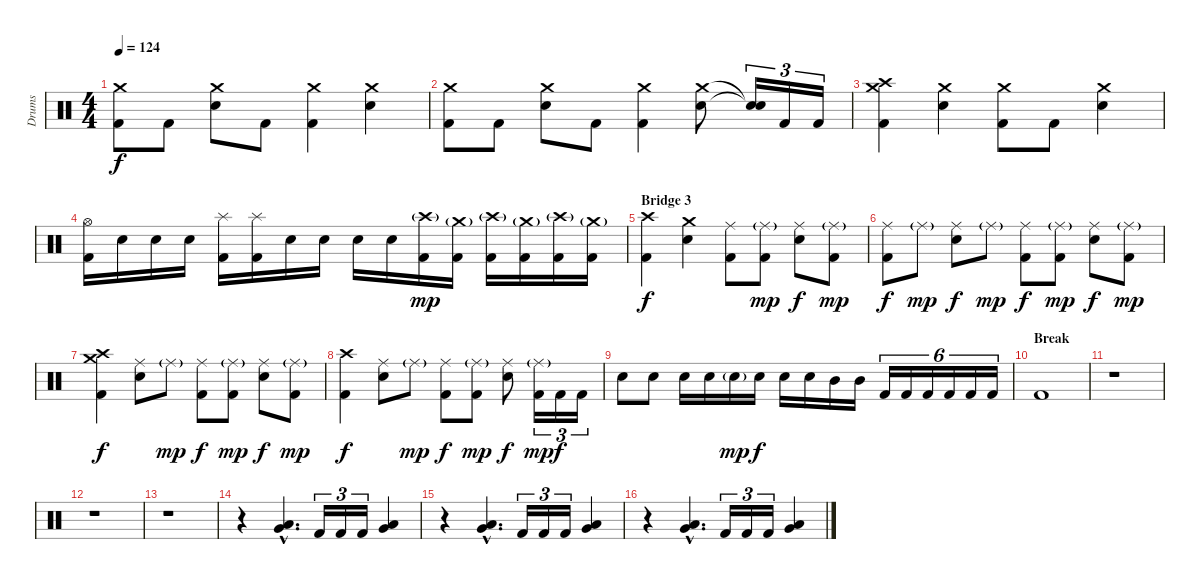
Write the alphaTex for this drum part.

\track ("Drums" "Drums") {instrument percussion}
\staff {score}
\articulation defaults
\ts (4 4)
\tempo 124
\clef neutral
\ks c
("Crash medium (hit)" "Kick (hit) 2").8{dy f} "Kick (hit) 2".8 ("Crash medium (hit)" "Snare (hit) 2").8 "Kick (hit) 2".8 ("Crash medium (hit)" "Kick (hit) 2").4 ("Crash medium (hit)" "Snare (hit) 2").4 |
("Crash medium (hit)" "Kick (hit) 2").8 "Kick (hit) 2".8 ("Crash medium (hit)" "Snare (hit) 2").8 "Kick (hit) 2".8 ("Crash medium (hit)" "Kick (hit) 2").4 ("Crash medium (hit)" "Snare (hit) 2").8 ("Snare (hit)"{t} "Snare (hit)"{t}).16{tu (3 2)} "Kick (hit) 2".16{tu (3 2)} "Kick (hit) 2".16{tu (3 2)} |
("Crash medium (hit)" "Crash high (hit)" "Kick (hit) 2").4 ("Crash medium (hit)" "Snare (hit) 2").4 ("Crash medium (hit)" "Kick (hit) 2").8 "Kick (hit) 2".8 ("Crash medium (hit)" "Snare (hit) 2").4 |
("Hi-Hat (open)" "Kick (hit) 2").16 "Snare (hit) 2".16 "Snare (hit) 2".16 "Snare (hit) 2".16 ("Splash (hit)" "Kick (hit) 2").16 ("Splash (hit)" "Kick (hit) 2").16 "Snare (hit) 2".16 "Snare (hit) 2".16 "Snare (hit) 2".16 "Snare (hit) 2".16 ("Crash high (hit)"{g} "Kick (hit) 2").16{dy mp} ("Crash medium (hit)"{g} "Kick (hit) 2").16 ("Crash high (hit)"{g} "Kick (hit) 2").16 ("Crash medium (hit)"{g} "Kick (hit) 2").16 ("Crash high (hit)"{g} "Kick (hit) 2").16 ("Crash medium (hit)"{g} "Kick (hit) 2").16 |
\section ("" "Bridge 3")
("Crash high (hit)" "Kick (hit) 2").4{dy f} ("Crash medium (hit)" "Snare (hit) 2").4 ("Ride (middle)" "Kick (hit) 2").8 ("Ride (middle)"{g} "Kick (hit) 2").8{dy mp} ("Ride (middle)" "Snare (hit) 2").8{dy f} ("Ride (middle)"{g} "Kick (hit) 2").8{dy mp} |
("Ride (middle)" "Kick (hit) 2").8{dy f} "Ride (middle)"{g}.8{dy mp} ("Ride (middle)" "Snare (hit) 2").8{dy f} "Ride (middle)"{g}.8{dy mp} ("Ride (middle)" "Kick (hit) 2").8{dy f} ("Ride (middle)"{g} "Kick (hit) 2").8{dy mp} ("Ride (middle)" "Snare (hit) 2").8{dy f} ("Ride (middle)"{g} "Kick (hit) 2").8{dy mp} |
("Crash medium (hit)" "Crash high (hit)" "Kick (hit) 2").4{dy f} ("Ride (middle)" "Snare (hit) 2").8 "Ride (middle)"{g}.8{dy mp} ("Ride (middle)" "Kick (hit) 2").8{dy f} ("Ride (middle)"{g} "Kick (hit) 2").8{dy mp} ("Ride (middle)" "Snare (hit) 2").8{dy f} ("Ride (middle)"{g} "Kick (hit) 2").8{dy mp} |
("Crash high (hit)" "Kick (hit) 2").4{dy f} ("Ride (middle)" "Snare (hit) 2").8 "Ride (middle)"{g}.8{dy mp} ("Ride (middle)" "Kick (hit) 2").8{dy f} ("Ride (middle)"{g} "Kick (hit) 2").8{dy mp} ("Ride (middle)" "Snare (hit) 2").8{dy f} ("Ride (middle)"{g} "Kick (hit) 2").16{tu (3 2) dy mp} "Kick (hit) 2".16{tu (3 2) dy f} "Kick (hit) 2".16{tu (3 2)} |
"Snare (hit) 2".8 "Snare (hit) 2".8 "Snare (hit) 2".16 "Snare (hit) 2".16 "Snare (hit) 2"{g}.16{dy mp} "Snare (hit) 2".16{dy f} "Snare (hit) 2".16 "Snare (hit) 2".16 "Mid Tom (hit)".16 "Mid Tom (hit)".16 "Kick (hit) 2".16{tu (6 4)} "Kick (hit) 2".16{tu (6 4)} "Kick (hit) 2".16{tu (6 4)} "Kick (hit) 2".16{tu (6 4)} "Kick (hit) 2".16{tu (6 4)} "Kick (hit) 2".16{tu (6 4)} |
\section ("" "Break")
"Kick (hit) 2".1 |
r.1 |
r.1 |
r.1 |
r.4 ("Very Low Tom (hit)"{hac} "Low Floor Tom (hit)"{hac}).4{d} "Kick (hit) 2".16{tu (3 2)} "Kick (hit) 2".16{tu (3 2)} "Kick (hit) 2".16{tu (3 2)} ("Very Low Tom (hit)" "Low Floor Tom (hit)").4 |
r.4 ("Very Low Tom (hit)"{hac} "Low Floor Tom (hit)"{hac}).4{d} "Kick (hit) 2".16{tu (3 2)} "Kick (hit) 2".16{tu (3 2)} "Kick (hit) 2".16{tu (3 2)} ("Very Low Tom (hit)" "Low Floor Tom (hit)").4 |
r.4 ("Very Low Tom (hit)"{hac} "Low Floor Tom (hit)"{hac}).4{d} "Kick (hit) 2".16{tu (3 2)} "Kick (hit) 2".16{tu (3 2)} "Kick (hit) 2".16{tu (3 2)} ("Very Low Tom (hit)" "Low Floor Tom (hit)").4
